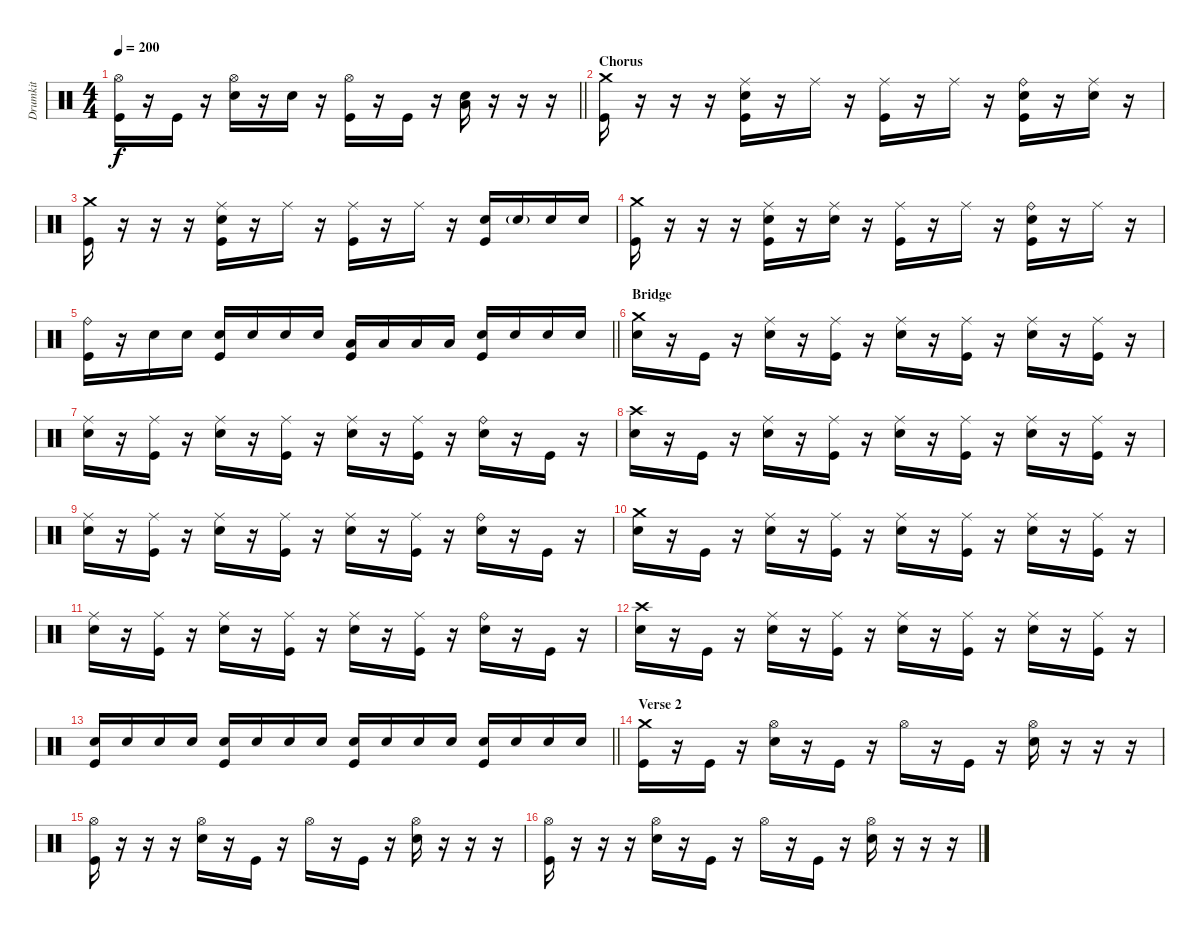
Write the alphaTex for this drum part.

\track ("Drumkit" "Drumkit") {instrument percussion}
\staff {score}
\articulation defaults
\ts (4 4)
\tempo 200
\clef neutral
\barLineRight lightlight
\ks c
("Hi-Hat (open)" "Kick (hit)").16{dy f} r.16 "Kick (hit)".16 r.16 ("Hi-Hat (open)" "Snare (hit) 2").16 r.16 "Snare (hit) 2".16 r.16 ("Hi-Hat (open)" "Kick (hit)").16 r.16 "Kick (hit)".16 r.16 ("Low Floor Tom (hit)" "Snare (hit) 2").16 r.16 r.16 r.16 |
\section ("" "Chorus")
("Crash medium (hit)" "Kick (hit)").16 r.16 r.16 r.16 ("Ride (middle)" "Kick (hit)" "Snare (hit) 2").16 r.16 "Ride (middle)".16 r.16 ("Ride (middle)" "Kick (hit)").16 r.16 "Ride (middle)".16 r.16 ("Ride (bell)" "Kick (hit)" "Snare (hit) 2").16 r.16 ("Ride (middle)" "Snare (hit) 2").16 r.16 |
("Crash medium (hit)" "Kick (hit)").16 r.16 r.16 r.16 ("Ride (middle)" "Kick (hit)" "Snare (hit) 2").16 r.16 "Ride (middle)".16 r.16 ("Ride (middle)" "Kick (hit)").16 r.16 "Ride (middle)".16 r.16 ("Kick (hit)" "Snare (hit) 2").16 "Snare (hit) 2"{g}.16 "Snare (hit) 2".16 "Snare (hit) 2".16 |
("Crash medium (hit)" "Kick (hit)").16 r.16 r.16 r.16 ("Ride (middle)" "Kick (hit)" "Snare (hit) 2").16 r.16 ("Ride (middle)" "Snare (hit) 2").16 r.16 ("Ride (middle)" "Kick (hit)").16 r.16 "Ride (middle)".16 r.16 ("Ride (bell)" "Kick (hit)" "Snare (hit) 2").16 r.16 "Ride (middle)".16 r.16 |
\barLineRight lightlight
("Ride (bell)" "Kick (hit)").16 r.16 "Snare (hit) 2".16 "Snare (hit) 2".16 ("Kick (hit)" "Snare (hit) 2").16 "Snare (hit) 2".16 "Snare (hit) 2".16 "Snare (hit) 2".16 ("Low Tom (hit)" "Kick (hit)").16 "Low Tom (hit)".16 "Low Tom (hit)".16 "Low Tom (hit)".16 ("Kick (hit)" "Snare (hit) 2").16 "Snare (hit) 2".16 "Snare (hit) 2".16 "Snare (hit) 2".16 |
\section ("" "Bridge")
("Crash medium (hit)" "Snare (hit) 2").16 r.16 "Kick (hit)".16 r.16 ("Ride (middle)" "Snare (hit) 2").16 r.16 ("Ride (middle)" "Kick (hit)").16 r.16 ("Ride (middle)" "Snare (hit) 2").16 r.16 ("Ride (middle)" "Kick (hit)").16 r.16 ("Ride (middle)" "Snare (hit) 2").16 r.16 ("Ride (middle)" "Kick (hit)").16 r.16 |
("Ride (middle)" "Snare (hit) 2").16 r.16 ("Ride (middle)" "Kick (hit)").16 r.16 ("Ride (middle)" "Snare (hit) 2").16 r.16 ("Ride (middle)" "Kick (hit)").16 r.16 ("Ride (middle)" "Snare (hit) 2").16 r.16 ("Ride (middle)" "Kick (hit)").16 r.16 ("Ride (bell)" "Snare (hit) 2").16 r.16 "Kick (hit)".16 r.16 |
("Crash high (hit)" "Snare (hit) 2").16 r.16 "Kick (hit)".16 r.16 ("Ride (middle)" "Snare (hit) 2").16 r.16 ("Ride (middle)" "Kick (hit)").16 r.16 ("Ride (middle)" "Snare (hit) 2").16 r.16 ("Ride (middle)" "Kick (hit)").16 r.16 ("Ride (middle)" "Snare (hit) 2").16 r.16 ("Ride (middle)" "Kick (hit)").16 r.16 |
("Ride (middle)" "Snare (hit) 2").16 r.16 ("Ride (middle)" "Kick (hit)").16 r.16 ("Ride (middle)" "Snare (hit) 2").16 r.16 ("Ride (middle)" "Kick (hit)").16 r.16 ("Ride (middle)" "Snare (hit) 2").16 r.16 ("Ride (middle)" "Kick (hit)").16 r.16 ("Ride (bell)" "Snare (hit) 2").16 r.16 "Kick (hit)".16 r.16 |
("Crash medium (hit)" "Snare (hit) 2").16 r.16 "Kick (hit)".16 r.16 ("Ride (middle)" "Snare (hit) 2").16 r.16 ("Ride (middle)" "Kick (hit)").16 r.16 ("Ride (middle)" "Snare (hit) 2").16 r.16 ("Ride (middle)" "Kick (hit)").16 r.16 ("Ride (middle)" "Snare (hit) 2").16 r.16 ("Ride (middle)" "Kick (hit)").16 r.16 |
("Ride (middle)" "Snare (hit) 2").16 r.16 ("Ride (middle)" "Kick (hit)").16 r.16 ("Ride (middle)" "Snare (hit) 2").16 r.16 ("Ride (middle)" "Kick (hit)").16 r.16 ("Ride (middle)" "Snare (hit) 2").16 r.16 ("Ride (middle)" "Kick (hit)").16 r.16 ("Ride (bell)" "Snare (hit) 2").16 r.16 "Kick (hit)".16 r.16 |
("Crash high (hit)" "Snare (hit) 2").16 r.16 "Kick (hit)".16 r.16 ("Ride (middle)" "Snare (hit) 2").16 r.16 ("Ride (middle)" "Kick (hit)").16 r.16 ("Ride (middle)" "Snare (hit) 2").16 r.16 ("Ride (middle)" "Kick (hit)").16 r.16 ("Ride (middle)" "Snare (hit) 2").16 r.16 ("Ride (middle)" "Kick (hit)").16 r.16 |
\barLineRight lightlight
("Kick (hit)" "Snare (hit) 2").16 "Snare (hit) 2".16 "Snare (hit) 2".16 "Snare (hit) 2".16 ("Kick (hit)" "Snare (hit) 2").16 "Snare (hit) 2".16 "Snare (hit) 2".16 "Snare (hit) 2".16 ("Kick (hit)" "Snare (hit) 2").16 "Snare (hit) 2".16 "Snare (hit) 2".16 "Snare (hit) 2".16 ("Kick (hit)" "Snare (hit) 2").16 "Snare (hit) 2".16 "Snare (hit) 2".16 "Snare (hit) 2".16 |
\section ("" "Verse 2")
("Crash medium (hit)" "Kick (hit)").16 r.16 "Kick (hit)".16 r.16 ("Hi-Hat (open)" "Snare (hit) 2").16 r.16 "Kick (hit)".16 r.16 "Hi-Hat (open)".16 r.16 "Kick (hit)".16 r.16 ("Hi-Hat (open)" "Snare (hit) 2").16 r.16 r.16 r.16 |
("Hi-Hat (open)" "Kick (hit)").16 r.16 r.16 r.16 ("Hi-Hat (open)" "Snare (hit) 2").16 r.16 "Kick (hit)".16 r.16 "Hi-Hat (open)".16 r.16 "Kick (hit)".16 r.16 ("Hi-Hat (open)" "Snare (hit) 2").16 r.16 r.16 r.16 |
("Hi-Hat (open)" "Kick (hit)").16 r.16 r.16 r.16 ("Hi-Hat (open)" "Snare (hit) 2").16 r.16 "Kick (hit)".16 r.16 "Hi-Hat (open)".16 r.16 "Kick (hit)".16 r.16 ("Hi-Hat (open)" "Snare (hit) 2").16 r.16 r.16 r.16
